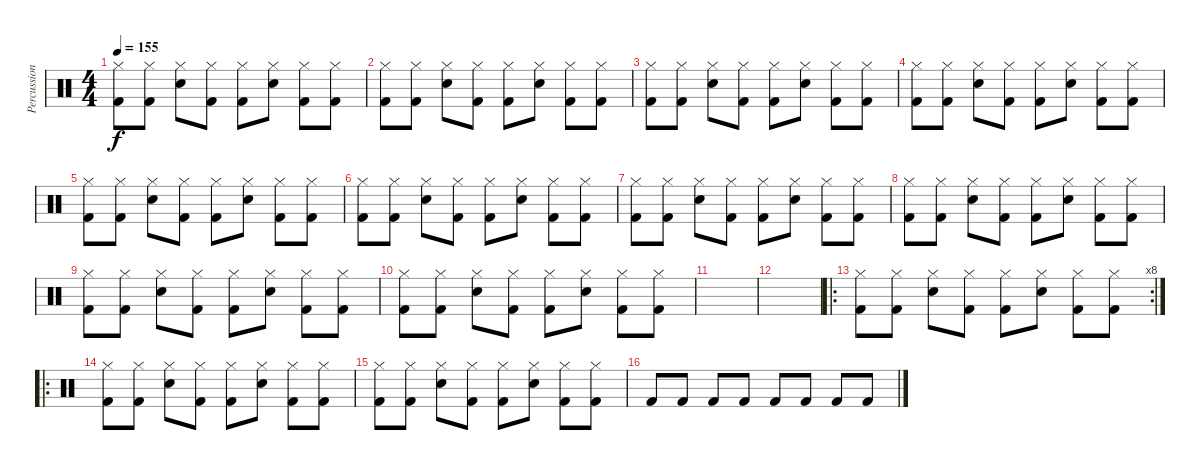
\track ("Percussion" "Percussion") {instrument percussion}
\staff {score}
\articulation defaults
\ts (4 4)
\tempo 155
\clef neutral
\ks c
("Hi-Hat (closed)" "Kick (hit) 2").8{dy f} ("Hi-Hat (closed)" "Kick (hit) 2").8 ("Hi-Hat (closed)" "Electric Snare (hit)").8 ("Hi-Hat (closed)" "Kick (hit) 2").8 ("Hi-Hat (closed)" "Kick (hit) 2").8 ("Hi-Hat (closed)" "Electric Snare (hit)").8 ("Hi-Hat (closed)" "Kick (hit) 2").8 ("Hi-Hat (closed)" "Kick (hit) 2").8 |
("Hi-Hat (closed)" "Kick (hit) 2").8 ("Hi-Hat (closed)" "Kick (hit) 2").8 ("Hi-Hat (closed)" "Electric Snare (hit)").8 ("Hi-Hat (closed)" "Kick (hit) 2").8 ("Hi-Hat (closed)" "Kick (hit) 2").8 ("Hi-Hat (closed)" "Electric Snare (hit)").8 ("Hi-Hat (closed)" "Kick (hit) 2").8 ("Hi-Hat (closed)" "Kick (hit) 2").8 |
("Hi-Hat (closed)" "Kick (hit) 2").8 ("Hi-Hat (closed)" "Kick (hit) 2").8 ("Hi-Hat (closed)" "Electric Snare (hit)").8 ("Hi-Hat (closed)" "Kick (hit) 2").8 ("Hi-Hat (closed)" "Kick (hit) 2").8 ("Hi-Hat (closed)" "Electric Snare (hit)").8 ("Hi-Hat (closed)" "Kick (hit) 2").8 ("Hi-Hat (closed)" "Kick (hit) 2").8 |
("Hi-Hat (closed)" "Kick (hit) 2").8 ("Hi-Hat (closed)" "Kick (hit) 2").8 ("Hi-Hat (closed)" "Electric Snare (hit)").8 ("Hi-Hat (closed)" "Kick (hit) 2").8 ("Hi-Hat (closed)" "Kick (hit) 2").8 ("Hi-Hat (closed)" "Electric Snare (hit)").8 ("Hi-Hat (closed)" "Kick (hit) 2").8 ("Hi-Hat (closed)" "Kick (hit) 2").8 |
("Hi-Hat (closed)" "Kick (hit) 2").8 ("Hi-Hat (closed)" "Kick (hit) 2").8 ("Hi-Hat (closed)" "Electric Snare (hit)").8 ("Hi-Hat (closed)" "Kick (hit) 2").8 ("Hi-Hat (closed)" "Kick (hit) 2").8 ("Hi-Hat (closed)" "Electric Snare (hit)").8 ("Hi-Hat (closed)" "Kick (hit) 2").8 ("Hi-Hat (closed)" "Kick (hit) 2").8 |
("Hi-Hat (closed)" "Kick (hit) 2").8 ("Hi-Hat (closed)" "Kick (hit) 2").8 ("Hi-Hat (closed)" "Electric Snare (hit)").8 ("Hi-Hat (closed)" "Kick (hit) 2").8 ("Hi-Hat (closed)" "Kick (hit) 2").8 ("Hi-Hat (closed)" "Electric Snare (hit)").8 ("Hi-Hat (closed)" "Kick (hit) 2").8 ("Hi-Hat (closed)" "Kick (hit) 2").8 |
("Hi-Hat (closed)" "Kick (hit) 2").8 ("Hi-Hat (closed)" "Kick (hit) 2").8 ("Hi-Hat (closed)" "Electric Snare (hit)").8 ("Hi-Hat (closed)" "Kick (hit) 2").8 ("Hi-Hat (closed)" "Kick (hit) 2").8 ("Hi-Hat (closed)" "Electric Snare (hit)").8 ("Hi-Hat (closed)" "Kick (hit) 2").8 ("Hi-Hat (closed)" "Kick (hit) 2").8 |
("Hi-Hat (closed)" "Kick (hit) 2").8 ("Hi-Hat (closed)" "Kick (hit) 2").8 ("Hi-Hat (closed)" "Electric Snare (hit)").8 ("Hi-Hat (closed)" "Kick (hit) 2").8 ("Hi-Hat (closed)" "Kick (hit) 2").8 ("Hi-Hat (closed)" "Electric Snare (hit)").8 ("Hi-Hat (closed)" "Kick (hit) 2").8 ("Hi-Hat (closed)" "Kick (hit) 2").8 |
("Hi-Hat (closed)" "Kick (hit) 2").8 ("Hi-Hat (closed)" "Kick (hit) 2").8 ("Hi-Hat (closed)" "Electric Snare (hit)").8 ("Hi-Hat (closed)" "Kick (hit) 2").8 ("Hi-Hat (closed)" "Kick (hit) 2").8 ("Hi-Hat (closed)" "Electric Snare (hit)").8 ("Hi-Hat (closed)" "Kick (hit) 2").8 ("Hi-Hat (closed)" "Kick (hit) 2").8 |
("Hi-Hat (closed)" "Kick (hit) 2").8 ("Hi-Hat (closed)" "Kick (hit) 2").8 ("Hi-Hat (closed)" "Electric Snare (hit)").8 ("Hi-Hat (closed)" "Kick (hit) 2").8 ("Hi-Hat (closed)" "Kick (hit) 2").8 ("Hi-Hat (closed)" "Electric Snare (hit)").8 ("Hi-Hat (closed)" "Kick (hit) 2").8 ("Hi-Hat (closed)" "Kick (hit) 2").8 |
|
|
\ro
\rc 8
("Hi-Hat (closed)" "Kick (hit) 2").8 ("Hi-Hat (closed)" "Kick (hit) 2").8 ("Hi-Hat (closed)" "Electric Snare (hit)").8 ("Hi-Hat (closed)" "Kick (hit) 2").8 ("Hi-Hat (closed)" "Kick (hit) 2").8 ("Hi-Hat (closed)" "Electric Snare (hit)").8 ("Hi-Hat (closed)" "Kick (hit) 2").8 ("Hi-Hat (closed)" "Kick (hit) 2").8 |
\ro
("Hi-Hat (closed)" "Kick (hit) 2").8 ("Hi-Hat (closed)" "Kick (hit) 2").8 ("Hi-Hat (closed)" "Electric Snare (hit)").8 ("Hi-Hat (closed)" "Kick (hit) 2").8 ("Hi-Hat (closed)" "Kick (hit) 2").8 ("Hi-Hat (closed)" "Electric Snare (hit)").8 ("Hi-Hat (closed)" "Kick (hit) 2").8 ("Hi-Hat (closed)" "Kick (hit) 2").8 |
("Hi-Hat (closed)" "Kick (hit) 2").8 ("Hi-Hat (closed)" "Kick (hit) 2").8 ("Hi-Hat (closed)" "Electric Snare (hit)").8 ("Hi-Hat (closed)" "Kick (hit) 2").8 ("Hi-Hat (closed)" "Kick (hit) 2").8 ("Hi-Hat (closed)" "Electric Snare (hit)").8 ("Hi-Hat (closed)" "Kick (hit) 2").8 ("Hi-Hat (closed)" "Kick (hit) 2").8 |
"Kick (hit) 2".8 "Kick (hit) 2".8 "Kick (hit) 2".8 "Kick (hit) 2".8 "Kick (hit) 2".8 "Kick (hit) 2".8 "Kick (hit) 2".8 "Kick (hit) 2".8
